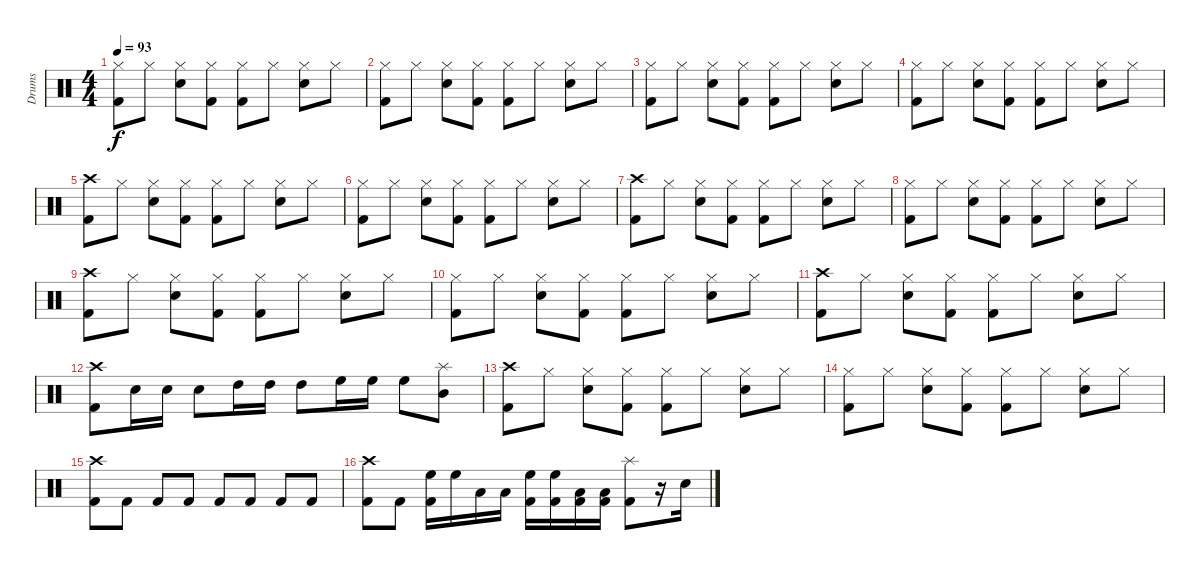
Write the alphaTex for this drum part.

\track ("Drums" "Drums") {instrument percussion}
\staff {score}
\articulation defaults
\ts (4 4)
\tempo 93
\clef neutral
\ks c
("Hi-Hat (closed)" "Kick (hit) 2").8{dy f} "Hi-Hat (closed)".8 ("Hi-Hat (closed)" "Electric Snare (hit)").8 ("Hi-Hat (closed)" "Kick (hit) 2").8 ("Hi-Hat (closed)" "Kick (hit) 2").8 "Hi-Hat (closed)".8 ("Hi-Hat (closed)" "Electric Snare (hit)").8 "Hi-Hat (closed)".8 |
("Hi-Hat (closed)" "Kick (hit) 2").8 "Hi-Hat (closed)".8 ("Hi-Hat (closed)" "Electric Snare (hit)").8 ("Hi-Hat (closed)" "Kick (hit) 2").8 ("Hi-Hat (closed)" "Kick (hit) 2").8 "Hi-Hat (closed)".8 ("Hi-Hat (closed)" "Electric Snare (hit)").8 "Hi-Hat (closed)".8 |
("Hi-Hat (closed)" "Kick (hit) 2").8 "Hi-Hat (closed)".8 ("Hi-Hat (closed)" "Electric Snare (hit)").8 ("Hi-Hat (closed)" "Kick (hit) 2").8 ("Hi-Hat (closed)" "Kick (hit) 2").8 "Hi-Hat (closed)".8 ("Hi-Hat (closed)" "Electric Snare (hit)").8 "Hi-Hat (closed)".8 |
("Hi-Hat (closed)" "Kick (hit) 2").8 "Hi-Hat (closed)".8 ("Hi-Hat (closed)" "Electric Snare (hit)").8 ("Hi-Hat (closed)" "Kick (hit) 2").8 ("Hi-Hat (closed)" "Kick (hit) 2").8 "Hi-Hat (closed)".8 ("Hi-Hat (closed)" "Electric Snare (hit)").8 "Hi-Hat (closed)".8 |
("Crash high (hit)" "Kick (hit) 2").8 "Hi-Hat (closed)".8 ("Hi-Hat (closed)" "Electric Snare (hit)").8 ("Hi-Hat (closed)" "Kick (hit) 2").8 ("Hi-Hat (closed)" "Kick (hit) 2").8 "Hi-Hat (closed)".8 ("Hi-Hat (closed)" "Electric Snare (hit)").8 "Hi-Hat (closed)".8 |
("Hi-Hat (closed)" "Kick (hit) 2").8 "Hi-Hat (closed)".8 ("Hi-Hat (closed)" "Electric Snare (hit)").8 ("Hi-Hat (closed)" "Kick (hit) 2").8 ("Hi-Hat (closed)" "Kick (hit) 2").8 "Hi-Hat (closed)".8 ("Hi-Hat (closed)" "Electric Snare (hit)").8 "Hi-Hat (closed)".8 |
("Crash high (hit)" "Kick (hit) 2").8 "Hi-Hat (closed)".8 ("Hi-Hat (closed)" "Electric Snare (hit)").8 ("Hi-Hat (closed)" "Kick (hit) 2").8 ("Hi-Hat (closed)" "Kick (hit) 2").8 "Hi-Hat (closed)".8 ("Hi-Hat (closed)" "Electric Snare (hit)").8 "Hi-Hat (closed)".8 |
("Hi-Hat (closed)" "Kick (hit) 2").8 "Hi-Hat (closed)".8 ("Hi-Hat (closed)" "Electric Snare (hit)").8 ("Hi-Hat (closed)" "Kick (hit) 2").8 ("Hi-Hat (closed)" "Kick (hit) 2").8 "Hi-Hat (closed)".8 ("Hi-Hat (closed)" "Electric Snare (hit)").8 "Hi-Hat (closed)".8 |
("Crash high (hit)" "Kick (hit) 2").8 "Hi-Hat (closed)".8 ("Hi-Hat (closed)" "Electric Snare (hit)").8 ("Hi-Hat (closed)" "Kick (hit) 2").8 ("Hi-Hat (closed)" "Kick (hit) 2").8 "Hi-Hat (closed)".8 ("Hi-Hat (closed)" "Electric Snare (hit)").8 "Hi-Hat (closed)".8 |
("Hi-Hat (closed)" "Kick (hit) 2").8 "Hi-Hat (closed)".8 ("Hi-Hat (closed)" "Electric Snare (hit)").8 ("Hi-Hat (closed)" "Kick (hit) 2").8 ("Hi-Hat (closed)" "Kick (hit) 2").8 "Hi-Hat (closed)".8 ("Hi-Hat (closed)" "Electric Snare (hit)").8 "Hi-Hat (closed)".8 |
("Crash high (hit)" "Kick (hit) 2").8 "Hi-Hat (closed)".8 ("Hi-Hat (closed)" "Electric Snare (hit)").8 ("Hi-Hat (closed)" "Kick (hit) 2").8 ("Hi-Hat (closed)" "Kick (hit) 2").8 "Hi-Hat (closed)".8 ("Hi-Hat (closed)" "Electric Snare (hit)").8 "Hi-Hat (closed)".8 |
("Crash high (hit)" "Kick (hit) 2").8 "Electric Snare (hit)".16 "Electric Snare (hit)".16 "Electric Snare (hit)".8 "High Tom (hit)".16 "High Tom (hit)".16 "High Tom (hit)".8 "High Floor Tom (hit)".16 "High Floor Tom (hit)".16 "High Floor Tom (hit)".8 ("Splash (hit)" "Mid Tom (hit)").8 |
("Crash high (hit)" "Kick (hit) 2").8 "Hi-Hat (closed)".8 ("Hi-Hat (closed)" "Electric Snare (hit)").8 ("Hi-Hat (closed)" "Kick (hit) 2").8 ("Hi-Hat (closed)" "Kick (hit) 2").8 "Hi-Hat (closed)".8 ("Hi-Hat (closed)" "Electric Snare (hit)").8 "Hi-Hat (closed)".8 |
("Hi-Hat (closed)" "Kick (hit) 2").8 "Hi-Hat (closed)".8 ("Hi-Hat (closed)" "Electric Snare (hit)").8 ("Hi-Hat (closed)" "Kick (hit) 2").8 ("Hi-Hat (closed)" "Kick (hit) 2").8 "Hi-Hat (closed)".8 ("Hi-Hat (closed)" "Electric Snare (hit)").8 "Hi-Hat (closed)".8 |
("Crash high (hit)" "Kick (hit) 2").8 "Kick (hit) 2".8 "Kick (hit) 2".8 "Kick (hit) 2".8 "Kick (hit) 2".8 "Kick (hit) 2".8 "Kick (hit) 2".8 "Kick (hit) 2".8 |
("Crash high (hit)" "Kick (hit) 2").8 "Kick (hit) 2".8 ("High Floor Tom (hit)" "Kick (hit) 2").16 "High Floor Tom (hit)".16 "Low Tom (hit)".16 "Low Tom (hit)".16 ("High Floor Tom (hit)" "Kick (hit) 2").16 ("High Floor Tom (hit)" "Kick (hit) 2").16 ("Low Tom (hit)" "Kick (hit) 2").16 ("Low Tom (hit)" "Kick (hit) 2").16 ("Splash (hit)" "Kick (hit) 2").8 r.16 "Electric Snare (hit)".16
